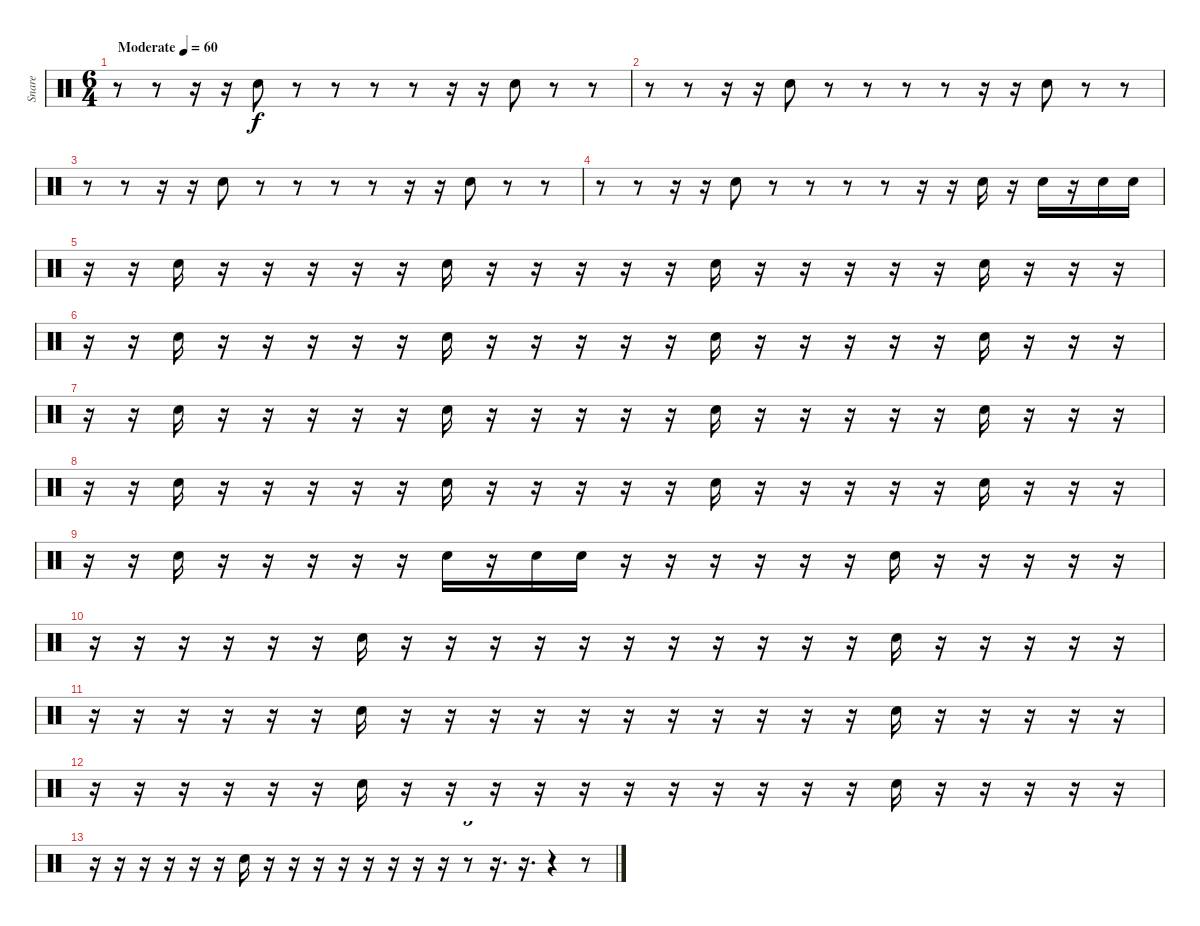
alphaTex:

\track ("Snare" "Snare") {instrument percussion}
\staff
\articulation defaults
\ts (6 4)
\tempo (60 "Moderate")
\clef neutral
\ks c
r.8{dy f} r.8 r.16 r.16 "Snare (hit) 2".8 r.8 r.8 r.8 r.8 r.16 r.16 "Snare (hit) 2".8 r.8 r.8 |
r.8 r.8 r.16 r.16 "Snare (hit) 2".8 r.8 r.8 r.8 r.8 r.16 r.16 "Snare (hit) 2".8 r.8 r.8 |
r.8 r.8 r.16 r.16 "Snare (hit) 2".8 r.8 r.8 r.8 r.8 r.16 r.16 "Snare (hit) 2".8 r.8 r.8 |
r.8 r.8 r.16 r.16 "Snare (hit) 2".8 r.8 r.8 r.8 r.8 r.16 r.16 "Snare (hit) 2".16 r.16 "Snare (hit) 2".16 r.16 "Snare (hit) 2".16 "Snare (hit) 2".16 |
r.16 r.16 "Snare (hit) 2".16 r.16 r.16 r.16 r.16 r.16 "Snare (hit) 2".16 r.16 r.16 r.16 r.16 r.16 "Snare (hit) 2".16 r.16 r.16 r.16 r.16 r.16 "Snare (hit) 2".16 r.16 r.16 r.16 |
r.16 r.16 "Snare (hit) 2".16 r.16 r.16 r.16 r.16 r.16 "Snare (hit) 2".16 r.16 r.16 r.16 r.16 r.16 "Snare (hit) 2".16 r.16 r.16 r.16 r.16 r.16 "Snare (hit) 2".16 r.16 r.16 r.16 |
r.16 r.16 "Snare (hit) 2".16 r.16 r.16 r.16 r.16 r.16 "Snare (hit) 2".16 r.16 r.16 r.16 r.16 r.16 "Snare (hit) 2".16 r.16 r.16 r.16 r.16 r.16 "Snare (hit) 2".16 r.16 r.16 r.16 |
r.16 r.16 "Snare (hit) 2".16 r.16 r.16 r.16 r.16 r.16 "Snare (hit) 2".16 r.16 r.16 r.16 r.16 r.16 "Snare (hit) 2".16 r.16 r.16 r.16 r.16 r.16 "Snare (hit) 2".16 r.16 r.16 r.16 |
r.16 r.16 "Snare (hit) 2".16 r.16 r.16 r.16 r.16 r.16 "Snare (hit) 2".16 r.16 "Snare (hit) 2".16 "Snare (hit) 2".16 r.16 r.16 r.16 r.16 r.16 r.16 "Snare (hit) 2".16 r.16 r.16 r.16 r.16 r.16 |
r.16 r.16 r.16 r.16 r.16 r.16 "Snare (hit) 2".16 r.16 r.16 r.16 r.16 r.16 r.16 r.16 r.16 r.16 r.16 r.16 "Snare (hit) 2".16 r.16 r.16 r.16 r.16 r.16 |
r.16 r.16 r.16 r.16 r.16 r.16 "Snare (hit) 2".16 r.16 r.16 r.16 r.16 r.16 r.16 r.16 r.16 r.16 r.16 r.16 "Snare (hit) 2".16 r.16 r.16 r.16 r.16 r.16 |
r.16 r.16 r.16 r.16 r.16 r.16 "Snare (hit) 2".16 r.16 r.16 r.16 r.16 r.16 r.16 r.16 r.16 r.16 r.16 r.16 "Snare (hit) 2".16 r.16 r.16 r.16 r.16 r.16 |
r.16 r.16 r.16 r.16 r.16 r.16 "Snare (hit) 2".16 r.16 r.16 r.16 r.16 r.16 r.16 r.16 r.16 r.8{tu (3 2)} r.16{d} r.16{d} r.4{tu (3 2)} r.8
